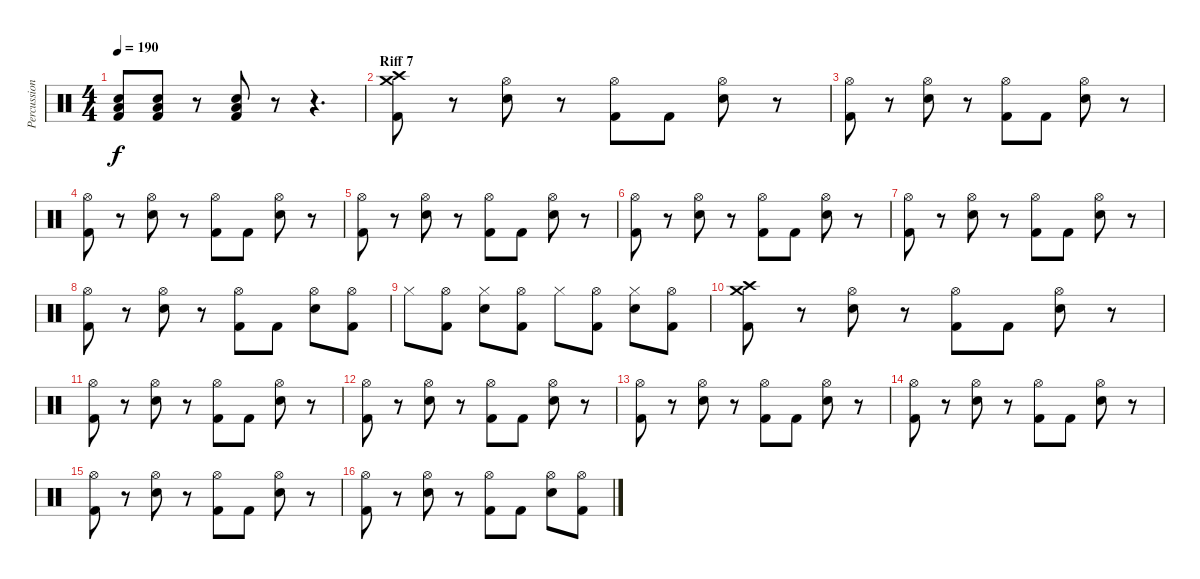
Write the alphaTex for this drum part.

\track ("Percussion" "Percussion") {instrument percussion}
\staff {score}
\articulation defaults
\ts (4 4)
\tempo 190
\clef neutral
\ks c
("Electric Snare (hit)" "Low Floor Tom (hit)" "Kick (hit) 2").8{dy f} ("Electric Snare (hit)" "Low Floor Tom (hit)" "Kick (hit) 2").8 r.8 ("Electric Snare (hit)" "Low Floor Tom (hit)" "Kick (hit) 2").8 r.8 r.4{d} |
\section ("" "Riff 7")
("Crash medium (hit)" "Crash high (hit)" "Kick (hit) 2").8 r.8 ("Hi-Hat (open)" "Electric Snare (hit)").8 r.8 ("Hi-Hat (open)" "Kick (hit) 2").8 "Kick (hit) 2".8 ("Hi-Hat (open)" "Electric Snare (hit)").8 r.8 |
("Hi-Hat (open)" "Kick (hit) 2").8 r.8 ("Hi-Hat (open)" "Electric Snare (hit)").8 r.8 ("Hi-Hat (open)" "Kick (hit) 2").8 "Kick (hit) 2".8 ("Hi-Hat (open)" "Electric Snare (hit)").8 r.8 |
("Hi-Hat (open)" "Kick (hit) 2").8 r.8 ("Hi-Hat (open)" "Electric Snare (hit)").8 r.8 ("Hi-Hat (open)" "Kick (hit) 2").8 "Kick (hit) 2".8 ("Hi-Hat (open)" "Electric Snare (hit)").8 r.8 |
("Hi-Hat (open)" "Kick (hit) 2").8 r.8 ("Hi-Hat (open)" "Electric Snare (hit)").8 r.8 ("Hi-Hat (open)" "Kick (hit) 2").8 "Kick (hit) 2".8 ("Hi-Hat (open)" "Electric Snare (hit)").8 r.8 |
("Hi-Hat (open)" "Kick (hit) 2").8 r.8 ("Hi-Hat (open)" "Electric Snare (hit)").8 r.8 ("Hi-Hat (open)" "Kick (hit) 2").8 "Kick (hit) 2".8 ("Hi-Hat (open)" "Electric Snare (hit)").8 r.8 |
("Hi-Hat (open)" "Kick (hit) 2").8 r.8 ("Hi-Hat (open)" "Electric Snare (hit)").8 r.8 ("Hi-Hat (open)" "Kick (hit) 2").8 "Kick (hit) 2".8 ("Hi-Hat (open)" "Electric Snare (hit)").8 r.8 |
("Hi-Hat (open)" "Kick (hit) 2").8 r.8 ("Hi-Hat (open)" "Electric Snare (hit)").8 r.8 ("Hi-Hat (open)" "Kick (hit) 2").8 "Kick (hit) 2".8 ("Hi-Hat (open)" "Electric Snare (hit)").8 ("Hi-Hat (open)" "Kick (hit) 2").8 |
"Hi-Hat (closed)".8 ("Hi-Hat (open)" "Kick (hit) 2").8 ("Hi-Hat (closed)" "Electric Snare (hit)").8 ("Hi-Hat (open)" "Kick (hit) 2").8 "Hi-Hat (closed)".8 ("Hi-Hat (open)" "Kick (hit) 2").8 ("Hi-Hat (closed)" "Electric Snare (hit)").8 ("Hi-Hat (open)" "Kick (hit) 2").8 |
("Crash medium (hit)" "Crash high (hit)" "Kick (hit) 2").8 r.8 ("Hi-Hat (open)" "Electric Snare (hit)").8 r.8 ("Hi-Hat (open)" "Kick (hit) 2").8 "Kick (hit) 2".8 ("Hi-Hat (open)" "Electric Snare (hit)").8 r.8 |
("Hi-Hat (open)" "Kick (hit) 2").8 r.8 ("Hi-Hat (open)" "Electric Snare (hit)").8 r.8 ("Hi-Hat (open)" "Kick (hit) 2").8 "Kick (hit) 2".8 ("Hi-Hat (open)" "Electric Snare (hit)").8 r.8 |
("Hi-Hat (open)" "Kick (hit) 2").8 r.8 ("Hi-Hat (open)" "Electric Snare (hit)").8 r.8 ("Hi-Hat (open)" "Kick (hit) 2").8 "Kick (hit) 2".8 ("Hi-Hat (open)" "Electric Snare (hit)").8 r.8 |
("Hi-Hat (open)" "Kick (hit) 2").8 r.8 ("Hi-Hat (open)" "Electric Snare (hit)").8 r.8 ("Hi-Hat (open)" "Kick (hit) 2").8 "Kick (hit) 2".8 ("Hi-Hat (open)" "Electric Snare (hit)").8 r.8 |
("Hi-Hat (open)" "Kick (hit) 2").8 r.8 ("Hi-Hat (open)" "Electric Snare (hit)").8 r.8 ("Hi-Hat (open)" "Kick (hit) 2").8 "Kick (hit) 2".8 ("Hi-Hat (open)" "Electric Snare (hit)").8 r.8 |
("Hi-Hat (open)" "Kick (hit) 2").8 r.8 ("Hi-Hat (open)" "Electric Snare (hit)").8 r.8 ("Hi-Hat (open)" "Kick (hit) 2").8 "Kick (hit) 2".8 ("Hi-Hat (open)" "Electric Snare (hit)").8 r.8 |
("Hi-Hat (open)" "Kick (hit) 2").8 r.8 ("Hi-Hat (open)" "Electric Snare (hit)").8 r.8 ("Hi-Hat (open)" "Kick (hit) 2").8 "Kick (hit) 2".8 ("Hi-Hat (open)" "Electric Snare (hit)").8 ("Hi-Hat (open)" "Kick (hit) 2").8
